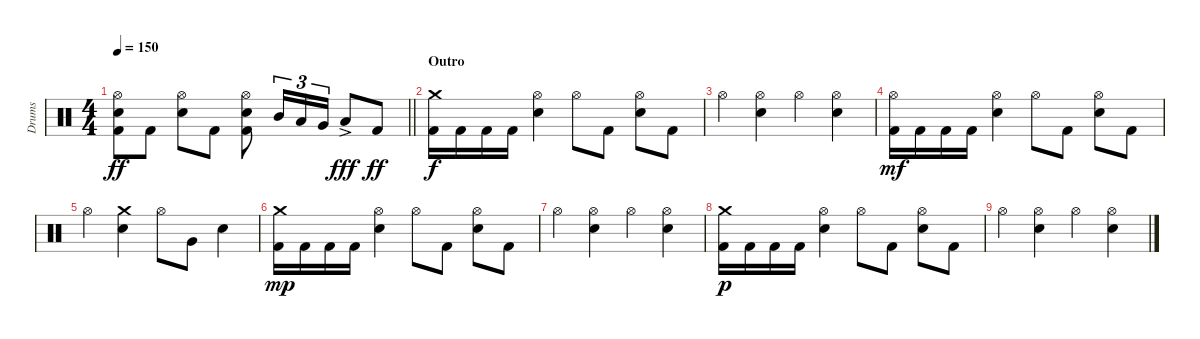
\track ("Drums" "Drums") {instrument percussion}
\staff {score}
\articulation defaults
\ts (4 4)
\tempo 150
\clef neutral
\barLineRight lightlight
\ks c
("Hi-Hat (open)" "Electric Snare (hit)" "Kick (hit) 2").8{dy ff} "Kick (hit) 2".8 ("Hi-Hat (open)" "Electric Snare (hit)").8 "Kick (hit) 2".8 ("Hi-Hat (open)" "Electric Snare (hit)" "Kick (hit) 2").8 "Mid Tom (hit)".16{tu (3 2)} "Low Tom (hit)".16{tu (3 2)} "Very Low Tom (hit)".16{tu (3 2)} "Low Floor Tom (hit)"{ac}.8{dy fff} "Kick (hit) 2".8{dy ff} |
\section ("" "Outro")
("Crash medium (hit)" "Kick (hit) 2").16{dy f} "Kick (hit) 2".16 "Kick (hit) 2".16 "Kick (hit) 2".16 ("Hi-Hat (open)" "Electric Snare (hit)").4 "Hi-Hat (open)".8 "Kick (hit) 2".8 ("Hi-Hat (open)" "Electric Snare (hit)").8 "Kick (hit) 2".8 |
"Hi-Hat (open)".4 ("Hi-Hat (open)" "Electric Snare (hit)").4 "Hi-Hat (open)".4 ("Hi-Hat (open)" "Electric Snare (hit)").4 |
("Hi-Hat (open)" "Kick (hit) 2").16{dy mf} "Kick (hit) 2".16 "Kick (hit) 2".16 "Kick (hit) 2".16 ("Hi-Hat (open)" "Electric Snare (hit)").4 "Hi-Hat (open)".8 "Kick (hit) 2".8 ("Hi-Hat (open)" "Electric Snare (hit)").8 "Kick (hit) 2".8 |
"Hi-Hat (open)".4 ("Crash medium (hit)" "Electric Snare (hit)").4 "Hi-Hat (open)".8 "Very Low Tom (hit)".8 "Electric Snare (hit)".4 |
("Crash medium (hit)" "Kick (hit) 2").16{dy mp} "Kick (hit) 2".16 "Kick (hit) 2".16 "Kick (hit) 2".16 ("Hi-Hat (open)" "Electric Snare (hit)").4 "Hi-Hat (open)".8 "Kick (hit) 2".8 ("Hi-Hat (open)" "Electric Snare (hit)").8 "Kick (hit) 2".8 |
"Hi-Hat (open)".4 ("Hi-Hat (open)" "Electric Snare (hit)").4 "Hi-Hat (open)".4 ("Hi-Hat (open)" "Electric Snare (hit)").4 |
("Crash medium (hit)" "Kick (hit) 2").16{dy p} "Kick (hit) 2".16 "Kick (hit) 2".16 "Kick (hit) 2".16 ("Hi-Hat (open)" "Electric Snare (hit)").4 "Hi-Hat (open)".8 "Kick (hit) 2".8 ("Hi-Hat (open)" "Electric Snare (hit)").8 "Kick (hit) 2".8 |
"Hi-Hat (open)".4 ("Hi-Hat (open)" "Electric Snare (hit)").4 "Hi-Hat (open)".4 ("Hi-Hat (open)" "Electric Snare (hit)").4
